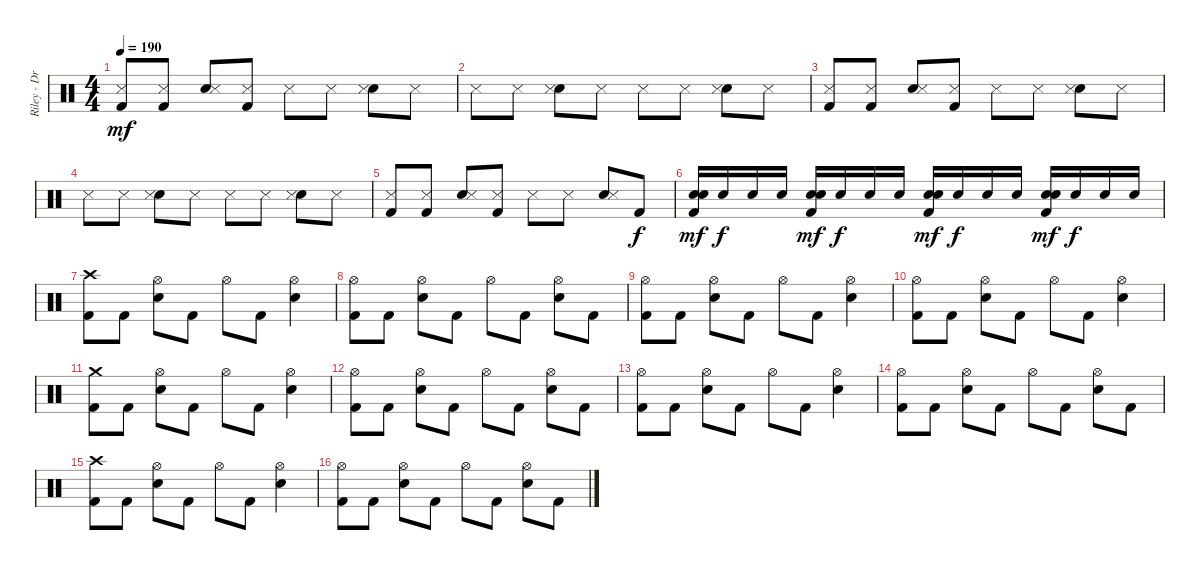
\track ("Riley - Drums" "Riley - Dr") {instrument percussion}
\staff {score}
\articulation defaults
\ts (4 4)
\tempo 190
\clef neutral
\ks c
("Kick (hit) 2" "Snare (side stick) 3").8{dy mf} ("Kick (hit) 2" "Snare (side stick) 3").8 ("Electric Snare (hit)" "Snare (side stick) 3").8 ("Kick (hit) 2" "Snare (side stick) 3").8 "Snare (side stick) 3".8 "Snare (side stick) 3".8 ("Electric Snare (hit)" "Snare (side stick) 3").8 "Snare (side stick) 3".8 |
"Snare (side stick) 3".8 "Snare (side stick) 3".8 ("Electric Snare (hit)" "Snare (side stick) 3").8 "Snare (side stick) 3".8 "Snare (side stick) 3".8 "Snare (side stick) 3".8 ("Electric Snare (hit)" "Snare (side stick) 3").8 "Snare (side stick) 3".8 |
("Kick (hit) 2" "Snare (side stick) 3").8 ("Kick (hit) 2" "Snare (side stick) 3").8 ("Electric Snare (hit)" "Snare (side stick) 3").8 ("Kick (hit) 2" "Snare (side stick) 3").8 "Snare (side stick) 3".8 "Snare (side stick) 3".8 ("Electric Snare (hit)" "Snare (side stick) 3").8 "Snare (side stick) 3".8 |
"Snare (side stick) 3".8 "Snare (side stick) 3".8 ("Electric Snare (hit)" "Snare (side stick) 3").8 "Snare (side stick) 3".8 "Snare (side stick) 3".8 "Snare (side stick) 3".8 ("Electric Snare (hit)" "Snare (side stick) 3").8 "Snare (side stick) 3".8 |
("Kick (hit) 2" "Snare (side stick) 3").8 ("Kick (hit) 2" "Snare (side stick) 3").8 ("Electric Snare (hit)" "Snare (side stick) 3").8 ("Kick (hit) 2" "Snare (side stick) 3").8 "Snare (side stick) 3".8 "Snare (side stick) 3".8 ("Electric Snare (hit)" "Snare (side stick) 3").8 "Kick (hit) 2".8{dy f} |
("Kick (hit) 2" "Electric Snare (hit)" "Electric Snare (hit)").16{dy mf} "Electric Snare (hit)".16{dy f} "Electric Snare (hit)".16 "Electric Snare (hit)".16 ("Kick (hit) 2" "Electric Snare (hit)" "Electric Snare (hit)").16{dy mf} "Electric Snare (hit)".16{dy f} "Electric Snare (hit)".16 "Electric Snare (hit)".16 ("Kick (hit) 2" "Electric Snare (hit)" "Electric Snare (hit)").16{dy mf} "Electric Snare (hit)".16{dy f} "Electric Snare (hit)".16 "Electric Snare (hit)".16 ("Kick (hit) 2" "Electric Snare (hit)" "Electric Snare (hit)").16{dy mf} "Electric Snare (hit)".16{dy f} "Electric Snare (hit)".16 "Electric Snare (hit)".16 |
("Kick (hit) 2" "Crash high (hit)").8 "Kick (hit) 2".8 ("Electric Snare (hit)" "Hi-Hat (open)").8 "Kick (hit) 2".8 "Hi-Hat (open)".8 "Kick (hit) 2".8 ("Electric Snare (hit)" "Hi-Hat (open)").4 |
("Kick (hit) 2" "Hi-Hat (open)").8 "Kick (hit) 2".8 ("Electric Snare (hit)" "Hi-Hat (open)").8 "Kick (hit) 2".8 "Hi-Hat (open)".8 "Kick (hit) 2".8 ("Electric Snare (hit)" "Hi-Hat (open)").8 "Kick (hit) 2".8 |
("Kick (hit) 2" "Hi-Hat (open)").8 "Kick (hit) 2".8 ("Electric Snare (hit)" "Hi-Hat (open)").8 "Kick (hit) 2".8 "Hi-Hat (open)".8 "Kick (hit) 2".8 ("Electric Snare (hit)" "Hi-Hat (open)").4 |
("Kick (hit) 2" "Hi-Hat (open)").8 "Kick (hit) 2".8 ("Electric Snare (hit)" "Hi-Hat (open)").8 "Kick (hit) 2".8 "Hi-Hat (open)".8 "Kick (hit) 2".8 ("Electric Snare (hit)" "Hi-Hat (open)").4 |
("Kick (hit) 2" "Crash medium (hit)").8 "Kick (hit) 2".8 ("Electric Snare (hit)" "Hi-Hat (open)").8 "Kick (hit) 2".8 "Hi-Hat (open)".8 "Kick (hit) 2".8 ("Electric Snare (hit)" "Hi-Hat (open)").4 |
("Kick (hit) 2" "Hi-Hat (open)").8 "Kick (hit) 2".8 ("Electric Snare (hit)" "Hi-Hat (open)").8 "Kick (hit) 2".8 "Hi-Hat (open)".8 "Kick (hit) 2".8 ("Electric Snare (hit)" "Hi-Hat (open)").8 "Kick (hit) 2".8 |
("Kick (hit) 2" "Hi-Hat (open)").8 "Kick (hit) 2".8 ("Electric Snare (hit)" "Hi-Hat (open)").8 "Kick (hit) 2".8 "Hi-Hat (open)".8 "Kick (hit) 2".8 ("Electric Snare (hit)" "Hi-Hat (open)").4 |
("Kick (hit) 2" "Hi-Hat (open)").8 "Kick (hit) 2".8 ("Electric Snare (hit)" "Hi-Hat (open)").8 "Kick (hit) 2".8 "Hi-Hat (open)".8 "Kick (hit) 2".8 ("Electric Snare (hit)" "Hi-Hat (open)").8 "Kick (hit) 2".8 |
("Kick (hit) 2" "Crash high (hit)").8 "Kick (hit) 2".8 ("Electric Snare (hit)" "Hi-Hat (open)").8 "Kick (hit) 2".8 "Hi-Hat (open)".8 "Kick (hit) 2".8 ("Electric Snare (hit)" "Hi-Hat (open)").4 |
("Kick (hit) 2" "Hi-Hat (open)").8 "Kick (hit) 2".8 ("Electric Snare (hit)" "Hi-Hat (open)").8 "Kick (hit) 2".8 "Hi-Hat (open)".8 "Kick (hit) 2".8 ("Electric Snare (hit)" "Hi-Hat (open)").8 "Kick (hit) 2".8
